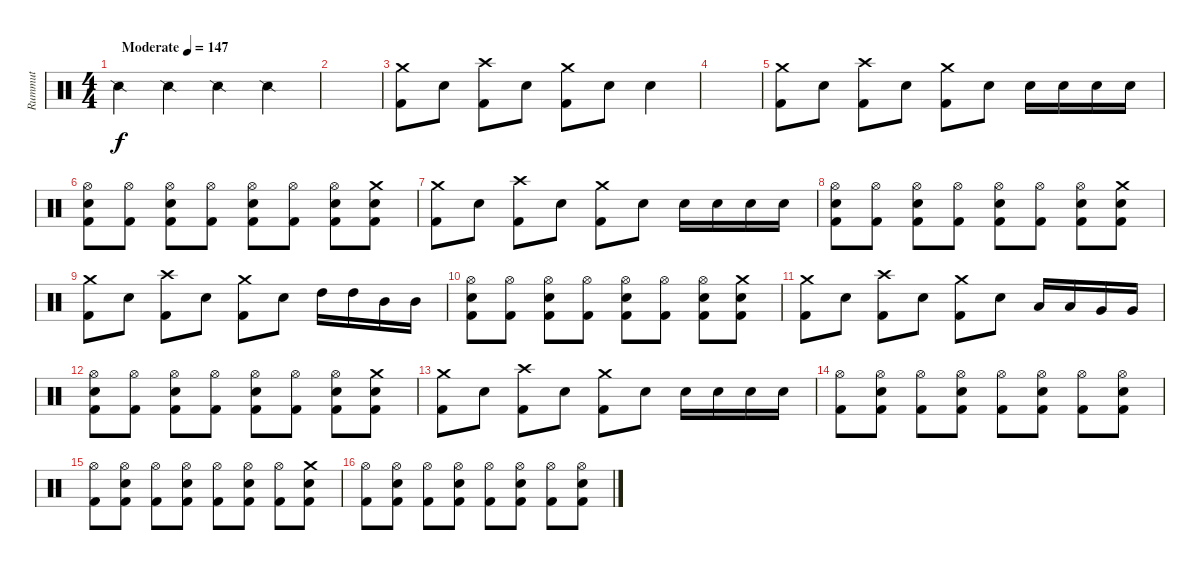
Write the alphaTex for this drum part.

\track ("Rummut" "Rummut") {instrument percussion}
\staff {score}
\articulation defaults
\ts (4 4)
\tempo (147 "Moderate")
\clef neutral
\ks c "Snare (side stick) 2".4{dy f} "Snare (side stick) 2".4 "Snare (side stick) 2".4 "Snare (side stick) 2".4
|
|
("Crash medium (hit)" "Kick (hit) 2").8 "Electric Snare (hit)".8 ("Crash high (hit)" "Kick (hit) 2").8 "Electric Snare (hit)".8 ("Crash medium (hit)" "Kick (hit) 2").8 "Electric Snare (hit)".8 "Electric Snare (hit)".4 |
|
("Crash medium (hit)" "Kick (hit) 2").8 "Electric Snare (hit)".8 ("Crash high (hit)" "Kick (hit) 2").8 "Electric Snare (hit)".8 ("Crash medium (hit)" "Kick (hit) 2").8 "Electric Snare (hit)".8 "Electric Snare (hit)".16 "Electric Snare (hit)".16 "Electric Snare (hit)".16 "Electric Snare (hit)".16 |
("Hi-Hat (open)" "Electric Snare (hit)" "Kick (hit) 2").8 ("Hi-Hat (open)" "Kick (hit) 2").8 ("Hi-Hat (open)" "Electric Snare (hit)" "Kick (hit) 2").8 ("Hi-Hat (open)" "Kick (hit) 2").8 ("Hi-Hat (open)" "Electric Snare (hit)" "Kick (hit) 2").8 ("Hi-Hat (open)" "Kick (hit) 2").8 ("Hi-Hat (open)" "Electric Snare (hit)" "Kick (hit) 2").8 ("Crash medium (hit)" "Electric Snare (hit)" "Kick (hit) 2").8 |
("Crash medium (hit)" "Kick (hit) 2").8 "Electric Snare (hit)".8 ("Crash high (hit)" "Kick (hit) 2").8 "Electric Snare (hit)".8 ("Crash medium (hit)" "Kick (hit) 2").8 "Electric Snare (hit)".8 "Electric Snare (hit)".16 "Electric Snare (hit)".16 "Electric Snare (hit)".16 "Electric Snare (hit)".16 |
("Hi-Hat (open)" "Electric Snare (hit)" "Kick (hit) 2").8 ("Hi-Hat (open)" "Kick (hit) 2").8 ("Hi-Hat (open)" "Electric Snare (hit)" "Kick (hit) 2").8 ("Hi-Hat (open)" "Kick (hit) 2").8 ("Hi-Hat (open)" "Electric Snare (hit)" "Kick (hit) 2").8 ("Hi-Hat (open)" "Kick (hit) 2").8 ("Hi-Hat (open)" "Electric Snare (hit)" "Kick (hit) 2").8 ("Crash medium (hit)" "Electric Snare (hit)" "Kick (hit) 2").8 |
("Crash medium (hit)" "Kick (hit) 2").8 "Electric Snare (hit)".8 ("Crash high (hit)" "Kick (hit) 2").8 "Electric Snare (hit)".8 ("Crash medium (hit)" "Kick (hit) 2").8 "Electric Snare (hit)".8 "High Tom (hit)".16 "High Tom (hit)".16 "Mid Tom (hit)".16 "Mid Tom (hit)".16 |
("Hi-Hat (open)" "Electric Snare (hit)" "Kick (hit) 2").8 ("Hi-Hat (open)" "Kick (hit) 2").8 ("Hi-Hat (open)" "Electric Snare (hit)" "Kick (hit) 2").8 ("Hi-Hat (open)" "Kick (hit) 2").8 ("Hi-Hat (open)" "Electric Snare (hit)" "Kick (hit) 2").8 ("Hi-Hat (open)" "Kick (hit) 2").8 ("Hi-Hat (open)" "Electric Snare (hit)" "Kick (hit) 2").8 ("Crash medium (hit)" "Electric Snare (hit)" "Kick (hit) 2").8 |
("Crash medium (hit)" "Kick (hit) 2").8 "Electric Snare (hit)".8 ("Crash high (hit)" "Kick (hit) 2").8 "Electric Snare (hit)".8 ("Crash medium (hit)" "Kick (hit) 2").8 "Electric Snare (hit)".8 "Low Tom (hit)".16 "Low Tom (hit)".16 "Very Low Tom (hit)".16 "Very Low Tom (hit)".16 |
("Hi-Hat (open)" "Electric Snare (hit)" "Kick (hit) 2").8 ("Hi-Hat (open)" "Kick (hit) 2").8 ("Hi-Hat (open)" "Electric Snare (hit)" "Kick (hit) 2").8 ("Hi-Hat (open)" "Kick (hit) 2").8 ("Hi-Hat (open)" "Electric Snare (hit)" "Kick (hit) 2").8 ("Hi-Hat (open)" "Kick (hit) 2").8 ("Hi-Hat (open)" "Electric Snare (hit)" "Kick (hit) 2").8 ("Crash medium (hit)" "Electric Snare (hit)" "Kick (hit) 2").8 |
("Crash medium (hit)" "Kick (hit) 2").8 "Electric Snare (hit)".8 ("Crash high (hit)" "Kick (hit) 2").8 "Electric Snare (hit)".8 ("Crash medium (hit)" "Kick (hit) 2").8 "Electric Snare (hit)".8 "Electric Snare (hit)".16 "Electric Snare (hit)".16 "Electric Snare (hit)".16 "Electric Snare (hit)".16 |
("Hi-Hat (open)" "Kick (hit) 2").8 ("Hi-Hat (open)" "Electric Snare (hit)" "Kick (hit) 2").8 ("Hi-Hat (open)" "Kick (hit) 2").8 ("Hi-Hat (open)" "Electric Snare (hit)" "Kick (hit) 2").8 ("Hi-Hat (open)" "Kick (hit) 2").8 ("Hi-Hat (open)" "Electric Snare (hit)" "Kick (hit) 2").8 ("Hi-Hat (open)" "Kick (hit) 2").8 ("Hi-Hat (open)" "Electric Snare (hit)" "Kick (hit) 2").8 |
("Hi-Hat (open)" "Kick (hit) 2").8 ("Hi-Hat (open)" "Electric Snare (hit)" "Kick (hit) 2").8 ("Hi-Hat (open)" "Kick (hit) 2").8 ("Hi-Hat (open)" "Electric Snare (hit)" "Kick (hit) 2").8 ("Hi-Hat (open)" "Kick (hit) 2").8 ("Hi-Hat (open)" "Electric Snare (hit)" "Kick (hit) 2").8 ("Hi-Hat (open)" "Kick (hit) 2").8 ("Crash medium (hit)" "Electric Snare (hit)" "Kick (hit) 2").8 |
("Hi-Hat (open)" "Kick (hit) 2").8 ("Hi-Hat (open)" "Electric Snare (hit)" "Kick (hit) 2").8 ("Hi-Hat (open)" "Kick (hit) 2").8 ("Hi-Hat (open)" "Electric Snare (hit)" "Kick (hit) 2").8 ("Hi-Hat (open)" "Kick (hit) 2").8 ("Hi-Hat (open)" "Electric Snare (hit)" "Kick (hit) 2").8 ("Hi-Hat (open)" "Kick (hit) 2").8 ("Hi-Hat (open)" "Electric Snare (hit)" "Kick (hit) 2").8
